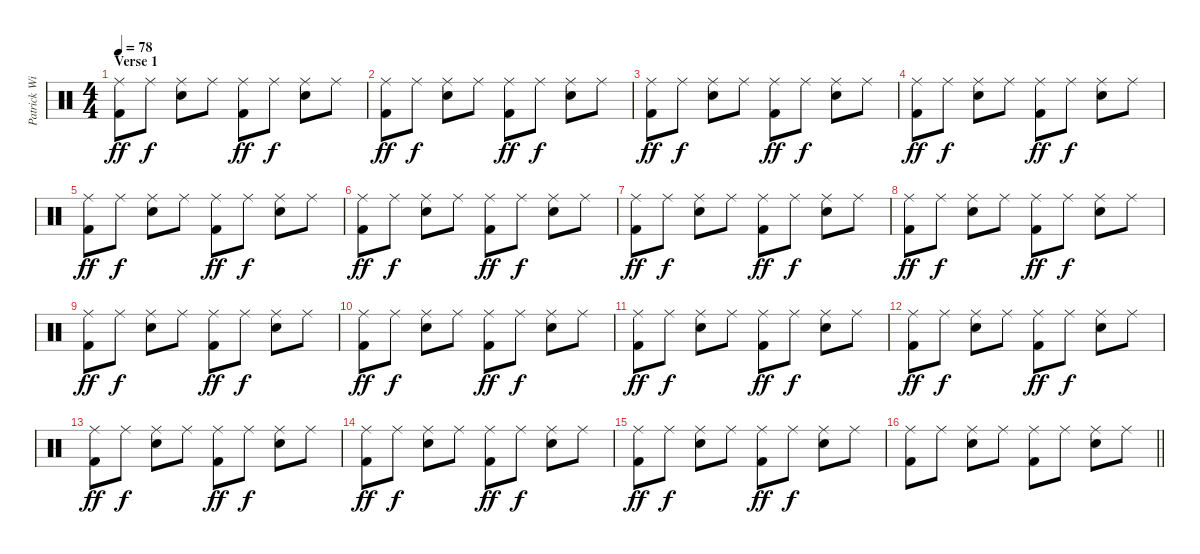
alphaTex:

\track ("Patrick Wilson" "Patrick Wi") {instrument percussion}
\staff {score}
\articulation defaults
\ts (4 4)
\section ("" "Verse 1")
\tempo 78
\clef neutral
\ks c
("Ride (middle)" "Kick (hit) 2").8{dy ff} "Ride (middle)".8{dy f} ("Ride (middle)" "Snare (hit) 2").8 "Ride (middle)".8 ("Ride (middle)" "Kick (hit) 2").8{dy ff} "Ride (middle)".8{dy f} ("Ride (middle)" "Snare (hit) 2").8 "Ride (middle)".8 |
("Ride (middle)" "Kick (hit) 2").8{dy ff} "Ride (middle)".8{dy f} ("Ride (middle)" "Snare (hit) 2").8 "Ride (middle)".8 ("Ride (middle)" "Kick (hit) 2").8{dy ff} "Ride (middle)".8{dy f} ("Ride (middle)" "Snare (hit) 2").8 "Ride (middle)".8 |
("Ride (middle)" "Kick (hit) 2").8{dy ff} "Ride (middle)".8{dy f} ("Ride (middle)" "Snare (hit) 2").8 "Ride (middle)".8 ("Ride (middle)" "Kick (hit) 2").8{dy ff} "Ride (middle)".8{dy f} ("Ride (middle)" "Snare (hit) 2").8 "Ride (middle)".8 |
("Ride (middle)" "Kick (hit) 2").8{dy ff} "Ride (middle)".8{dy f} ("Ride (middle)" "Snare (hit) 2").8 "Ride (middle)".8 ("Ride (middle)" "Kick (hit) 2").8{dy ff} "Ride (middle)".8{dy f} ("Ride (middle)" "Snare (hit) 2").8 "Ride (middle)".8 |
("Ride (middle)" "Kick (hit) 2").8{dy ff} "Ride (middle)".8{dy f} ("Ride (middle)" "Snare (hit) 2").8 "Ride (middle)".8 ("Ride (middle)" "Kick (hit) 2").8{dy ff} "Ride (middle)".8{dy f} ("Ride (middle)" "Snare (hit) 2").8 "Ride (middle)".8 |
("Ride (middle)" "Kick (hit) 2").8{dy ff} "Ride (middle)".8{dy f} ("Ride (middle)" "Snare (hit) 2").8 "Ride (middle)".8 ("Ride (middle)" "Kick (hit) 2").8{dy ff} "Ride (middle)".8{dy f} ("Ride (middle)" "Snare (hit) 2").8 "Ride (middle)".8 |
("Ride (middle)" "Kick (hit) 2").8{dy ff} "Ride (middle)".8{dy f} ("Ride (middle)" "Snare (hit) 2").8 "Ride (middle)".8 ("Ride (middle)" "Kick (hit) 2").8{dy ff} "Ride (middle)".8{dy f} ("Ride (middle)" "Snare (hit) 2").8 "Ride (middle)".8 |
("Ride (middle)" "Kick (hit) 2").8{dy ff} "Ride (middle)".8{dy f} ("Ride (middle)" "Snare (hit) 2").8 "Ride (middle)".8 ("Ride (middle)" "Kick (hit) 2").8{dy ff} "Ride (middle)".8{dy f} ("Ride (middle)" "Snare (hit) 2").8 "Ride (middle)".8 |
("Ride (middle)" "Kick (hit) 2").8{dy ff} "Ride (middle)".8{dy f} ("Ride (middle)" "Snare (hit) 2").8 "Ride (middle)".8 ("Ride (middle)" "Kick (hit) 2").8{dy ff} "Ride (middle)".8{dy f} ("Ride (middle)" "Snare (hit) 2").8 "Ride (middle)".8 |
("Ride (middle)" "Kick (hit) 2").8{dy ff} "Ride (middle)".8{dy f} ("Ride (middle)" "Snare (hit) 2").8 "Ride (middle)".8 ("Ride (middle)" "Kick (hit) 2").8{dy ff} "Ride (middle)".8{dy f} ("Ride (middle)" "Snare (hit) 2").8 "Ride (middle)".8 |
("Ride (middle)" "Kick (hit) 2").8{dy ff} "Ride (middle)".8{dy f} ("Ride (middle)" "Snare (hit) 2").8 "Ride (middle)".8 ("Ride (middle)" "Kick (hit) 2").8{dy ff} "Ride (middle)".8{dy f} ("Ride (middle)" "Snare (hit) 2").8 "Ride (middle)".8 |
("Ride (middle)" "Kick (hit) 2").8{dy ff} "Ride (middle)".8{dy f} ("Ride (middle)" "Snare (hit) 2").8 "Ride (middle)".8 ("Ride (middle)" "Kick (hit) 2").8{dy ff} "Ride (middle)".8{dy f} ("Ride (middle)" "Snare (hit) 2").8 "Ride (middle)".8 |
("Ride (middle)" "Kick (hit) 2").8{dy ff} "Ride (middle)".8{dy f} ("Ride (middle)" "Snare (hit) 2").8 "Ride (middle)".8 ("Ride (middle)" "Kick (hit) 2").8{dy ff} "Ride (middle)".8{dy f} ("Ride (middle)" "Snare (hit) 2").8 "Ride (middle)".8 |
("Ride (middle)" "Kick (hit) 2").8{dy ff} "Ride (middle)".8{dy f} ("Ride (middle)" "Snare (hit) 2").8 "Ride (middle)".8 ("Ride (middle)" "Kick (hit) 2").8{dy ff} "Ride (middle)".8{dy f} ("Ride (middle)" "Snare (hit) 2").8 "Ride (middle)".8 |
("Ride (middle)" "Kick (hit) 2").8{dy ff} "Ride (middle)".8{dy f} ("Ride (middle)" "Snare (hit) 2").8 "Ride (middle)".8 ("Ride (middle)" "Kick (hit) 2").8{dy ff} "Ride (middle)".8{dy f} ("Ride (middle)" "Snare (hit) 2").8 "Ride (middle)".8 |
\barLineRight lightlight
("Ride (middle)" "Kick (hit) 2").8 "Ride (middle)".8 ("Ride (middle)" "Snare (hit) 2").8 "Ride (middle)".8 ("Ride (middle)" "Kick (hit) 2").8 "Ride (middle)".8 ("Ride (middle)" "Snare (hit) 2").8 "Ride (middle)".8
